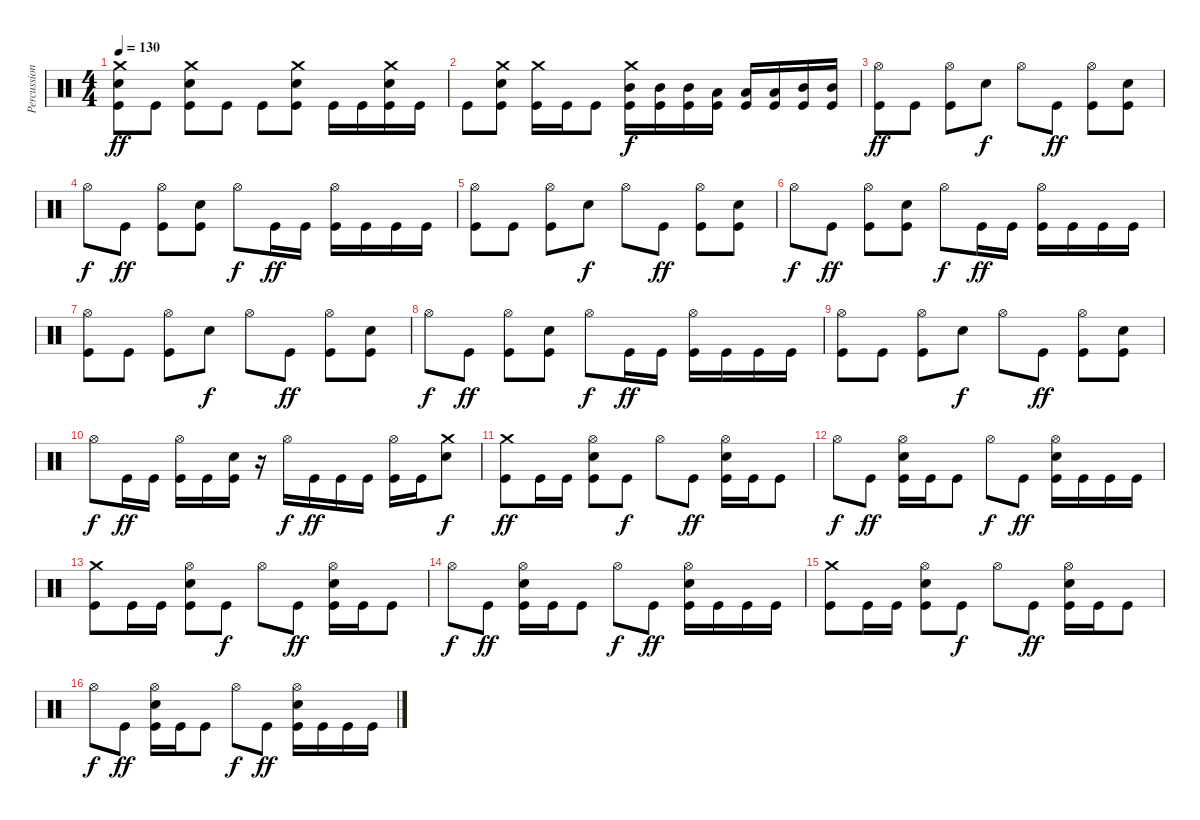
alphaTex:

\track ("Percussion" "Percussion") {instrument percussion}
\staff {score}
\articulation defaults
\ts (4 4)
\tempo 130
\clef neutral
\ks c
("Crash medium (hit)" "Snare (hit) 2" "Kick (hit)").8{dy ff} "Kick (hit)".8 ("Crash medium (hit)" "Snare (hit) 2" "Kick (hit)").8 "Kick (hit)".8 "Kick (hit)".8 ("Crash medium (hit)" "Snare (hit) 2" "Kick (hit)").8 "Kick (hit)".16 "Kick (hit)".16 ("Crash medium (hit)" "Snare (hit) 2" "Kick (hit)").16 "Kick (hit)".16 |
"Kick (hit)".8 ("Crash medium (hit)" "Snare (hit) 2" "Kick (hit)").8 ("Crash medium (hit)" "Kick (hit)").16 "Kick (hit)".16 "Kick (hit)".8 ("Crash medium (hit)" "Mid Tom (hit)" "Kick (hit)").16{dy f} ("Mid Tom (hit)" "Kick (hit)").16 ("Mid Tom (hit)" "Kick (hit)").16 ("Low Tom (hit)" "Kick (hit)").16 ("Low Tom (hit)" "Kick (hit)").16 ("Low Tom (hit)" "Kick (hit)").16 ("Mid Tom (hit)" "Kick (hit)").16 ("Mid Tom (hit)" "Kick (hit)").16 |
("Hi-Hat (open)" "Kick (hit)").8{dy ff} "Kick (hit)".8 ("Hi-Hat (open)" "Kick (hit)").8 "Snare (hit) 2".8{dy f} "Hi-Hat (open)".8 "Kick (hit)".8{dy ff} ("Hi-Hat (open)" "Kick (hit)").8 ("Snare (hit) 2" "Kick (hit)").8 |
"Hi-Hat (open)".8{dy f} "Kick (hit)".8{dy ff} ("Hi-Hat (open)" "Kick (hit)").8 ("Snare (hit) 2" "Kick (hit)").8 "Hi-Hat (open)".8{dy f} "Kick (hit)".16{dy ff} "Kick (hit)".16 ("Hi-Hat (open)" "Kick (hit)").16 "Kick (hit)".16 "Kick (hit)".16 "Kick (hit)".16 |
("Hi-Hat (open)" "Kick (hit)").8 "Kick (hit)".8 ("Hi-Hat (open)" "Kick (hit)").8 "Snare (hit) 2".8{dy f} "Hi-Hat (open)".8 "Kick (hit)".8{dy ff} ("Hi-Hat (open)" "Kick (hit)").8 ("Snare (hit) 2" "Kick (hit)").8 |
"Hi-Hat (open)".8{dy f} "Kick (hit)".8{dy ff} ("Hi-Hat (open)" "Kick (hit)").8 ("Snare (hit) 2" "Kick (hit)").8 "Hi-Hat (open)".8{dy f} "Kick (hit)".16{dy ff} "Kick (hit)".16 ("Hi-Hat (open)" "Kick (hit)").16 "Kick (hit)".16 "Kick (hit)".16 "Kick (hit)".16 |
("Hi-Hat (open)" "Kick (hit)").8 "Kick (hit)".8 ("Hi-Hat (open)" "Kick (hit)").8 "Snare (hit) 2".8{dy f} "Hi-Hat (open)".8 "Kick (hit)".8{dy ff} ("Hi-Hat (open)" "Kick (hit)").8 ("Snare (hit) 2" "Kick (hit)").8 |
"Hi-Hat (open)".8{dy f} "Kick (hit)".8{dy ff} ("Hi-Hat (open)" "Kick (hit)").8 ("Snare (hit) 2" "Kick (hit)").8 "Hi-Hat (open)".8{dy f} "Kick (hit)".16{dy ff} "Kick (hit)".16 ("Hi-Hat (open)" "Kick (hit)").16 "Kick (hit)".16 "Kick (hit)".16 "Kick (hit)".16 |
("Hi-Hat (open)" "Kick (hit)").8 "Kick (hit)".8 ("Hi-Hat (open)" "Kick (hit)").8 "Snare (hit) 2".8{dy f} "Hi-Hat (open)".8 "Kick (hit)".8{dy ff} ("Hi-Hat (open)" "Kick (hit)").8 ("Snare (hit) 2" "Kick (hit)").8 |
"Hi-Hat (open)".8{dy f} "Kick (hit)".16{dy ff} "Kick (hit)".16 ("Hi-Hat (open)" "Kick (hit)").16 "Kick (hit)".16 ("Snare (hit) 2" "Kick (hit)").16 r.16 "Hi-Hat (open)".16{dy f} "Kick (hit)".16{dy ff} "Kick (hit)".16 "Kick (hit)".16 ("Hi-Hat (open)" "Kick (hit)").16 "Kick (hit)".16 ("Crash medium (hit)" "Snare (hit) 2").8{dy f} |
("Crash medium (hit)" "Kick (hit)").8{dy ff} "Kick (hit)".16 "Kick (hit)".16 ("Hi-Hat (open)" "Snare (hit) 2" "Kick (hit)").8 "Kick (hit)".8{dy f} "Hi-Hat (open)".8 "Kick (hit)".8{dy ff} ("Hi-Hat (open)" "Snare (hit) 2" "Kick (hit)").16 "Kick (hit)".16 "Kick (hit)".8 |
"Hi-Hat (open)".8{dy f} "Kick (hit)".8{dy ff} ("Hi-Hat (open)" "Snare (hit) 2" "Kick (hit)").16 "Kick (hit)".16 "Kick (hit)".8 "Hi-Hat (open)".8{dy f} "Kick (hit)".8{dy ff} ("Hi-Hat (open)" "Snare (hit) 2" "Kick (hit)").16 "Kick (hit)".16 "Kick (hit)".16 "Kick (hit)".16 |
("Crash medium (hit)" "Kick (hit)").8 "Kick (hit)".16 "Kick (hit)".16 ("Hi-Hat (open)" "Snare (hit) 2" "Kick (hit)").8 "Kick (hit)".8{dy f} "Hi-Hat (open)".8 "Kick (hit)".8{dy ff} ("Hi-Hat (open)" "Snare (hit) 2" "Kick (hit)").16 "Kick (hit)".16 "Kick (hit)".8 |
"Hi-Hat (open)".8{dy f} "Kick (hit)".8{dy ff} ("Hi-Hat (open)" "Snare (hit) 2" "Kick (hit)").16 "Kick (hit)".16 "Kick (hit)".8 "Hi-Hat (open)".8{dy f} "Kick (hit)".8{dy ff} ("Hi-Hat (open)" "Snare (hit) 2" "Kick (hit)").16 "Kick (hit)".16 "Kick (hit)".16 "Kick (hit)".16 |
("Crash medium (hit)" "Kick (hit)").8 "Kick (hit)".16 "Kick (hit)".16 ("Hi-Hat (open)" "Snare (hit) 2" "Kick (hit)").8 "Kick (hit)".8{dy f} "Hi-Hat (open)".8 "Kick (hit)".8{dy ff} ("Hi-Hat (open)" "Snare (hit) 2" "Kick (hit)").16 "Kick (hit)".16 "Kick (hit)".8 |
"Hi-Hat (open)".8{dy f} "Kick (hit)".8{dy ff} ("Hi-Hat (open)" "Snare (hit) 2" "Kick (hit)").16 "Kick (hit)".16 "Kick (hit)".8 "Hi-Hat (open)".8{dy f} "Kick (hit)".8{dy ff} ("Hi-Hat (open)" "Snare (hit) 2" "Kick (hit)").16 "Kick (hit)".16 "Kick (hit)".16 "Kick (hit)".16
